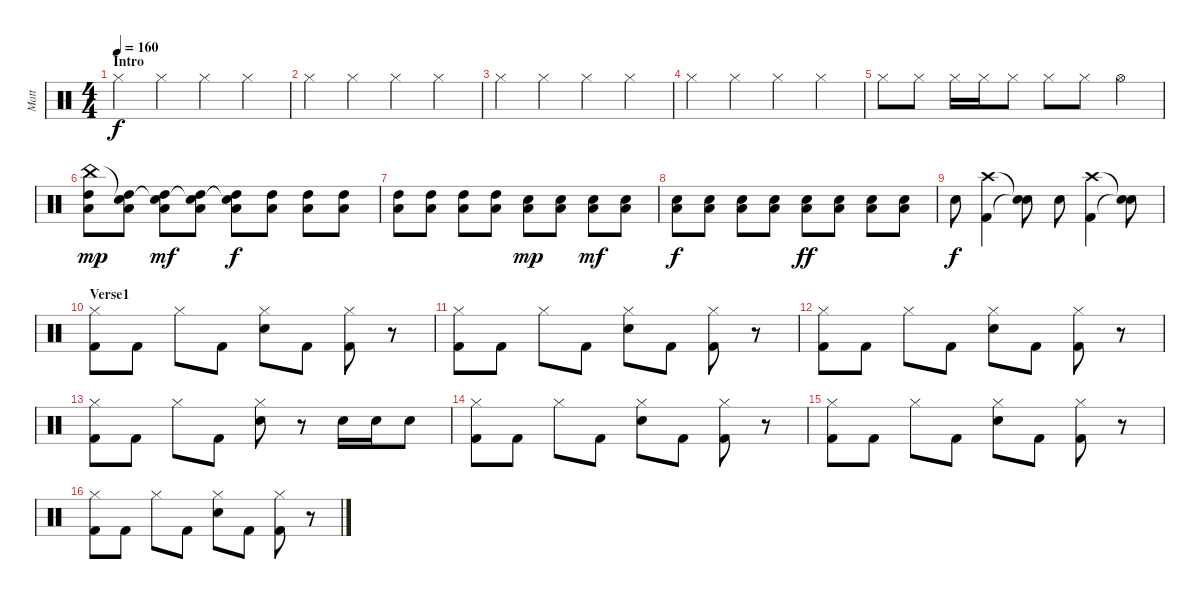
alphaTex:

\track ("Matt" "Matt") {instrument percussion}
\staff {score}
\articulation defaults
\ts (4 4)
\section ("" "Intro")
\tempo 160
\clef neutral
\ks c "Hi-Hat (closed)".4{dy f} "Hi-Hat (closed)".4 "Hi-Hat (closed)".4 "Hi-Hat (closed)".4
|
"Hi-Hat (closed)".4 "Hi-Hat (closed)".4 "Hi-Hat (closed)".4 "Hi-Hat (closed)".4 |
"Hi-Hat (closed)".4 "Hi-Hat (closed)".4 "Hi-Hat (closed)".4 "Hi-Hat (closed)".4 |
"Hi-Hat (closed)".4 "Hi-Hat (closed)".4 "Hi-Hat (closed)".4 "Hi-Hat (closed)".4 |
"Hi-Hat (closed)".8 "Hi-Hat (closed)".8 "Hi-Hat (closed)".16 "Hi-Hat (closed)".16 "Hi-Hat (closed)".8 "Hi-Hat (closed)".8 "Hi-Hat (closed)".8 "Hi-Hat (open)".4 |
("China (hit)" "High Tom (hit)" "Low Floor Tom (hit)").8{dy mp} ("Snare (hit)"{t} "High Tom (hit)" "Low Floor Tom (hit)").8 ("Snare (hit)"{t} "High Tom (hit)" "Low Floor Tom (hit)").8{dy mf} ("Snare (hit)"{t} "High Tom (hit)" "Low Floor Tom (hit)").8 ("Snare (hit)"{t} "High Tom (hit)" "Low Floor Tom (hit)").8{dy f} ("High Tom (hit)" "Low Floor Tom (hit)").8 ("High Tom (hit)" "Low Floor Tom (hit)").8 ("High Tom (hit)" "Low Floor Tom (hit)").8 |
("High Tom (hit)" "Low Floor Tom (hit)").8 ("High Tom (hit)" "Low Floor Tom (hit)").8 ("High Tom (hit)" "Low Floor Tom (hit)").8 ("High Tom (hit)" "Low Floor Tom (hit)").8 ("Electric Snare (hit)" "Low Floor Tom (hit)").8{dy mp} ("Electric Snare (hit)" "Low Floor Tom (hit)").8 ("Electric Snare (hit)" "Low Floor Tom (hit)").8{dy mf} ("Electric Snare (hit)" "Low Floor Tom (hit)").8 |
("Electric Snare (hit)" "Low Floor Tom (hit)").8{dy f} ("Electric Snare (hit)" "Low Floor Tom (hit)").8 ("Electric Snare (hit)" "Low Floor Tom (hit)").8 ("Electric Snare (hit)" "Low Floor Tom (hit)").8 ("Electric Snare (hit)" "Low Floor Tom (hit)").8{dy ff} ("Electric Snare (hit)" "Low Floor Tom (hit)").8 ("Electric Snare (hit)" "Low Floor Tom (hit)").8 ("Electric Snare (hit)" "Low Floor Tom (hit)").8 |
"Electric Snare (hit)".8{dy f} ("Crash high (hit)" "Kick (hit) 2").4 ("Snare (hit)"{t} "Snare (hit)"{t}).8 "Electric Snare (hit)".8 ("Crash high (hit)" "Kick (hit) 2").4 ("Snare (hit)"{t} "Snare (hit)"{t}).8 |
\section ("" "Verse1")
("Kick (hit) 2" "Hi-Hat (closed)").8 "Kick (hit) 2".8 "Hi-Hat (closed)".8 "Kick (hit) 2".8 ("Electric Snare (hit)" "Hi-Hat (closed)").8 "Kick (hit) 2".8 ("Kick (hit) 2" "Hi-Hat (closed)").8 r.8 |
("Kick (hit) 2" "Hi-Hat (closed)").8 "Kick (hit) 2".8 "Hi-Hat (closed)".8 "Kick (hit) 2".8 ("Electric Snare (hit)" "Hi-Hat (closed)").8 "Kick (hit) 2".8 ("Kick (hit) 2" "Hi-Hat (closed)").8 r.8 |
("Kick (hit) 2" "Hi-Hat (closed)").8 "Kick (hit) 2".8 "Hi-Hat (closed)".8 "Kick (hit) 2".8 ("Electric Snare (hit)" "Hi-Hat (closed)").8 "Kick (hit) 2".8 ("Kick (hit) 2" "Hi-Hat (closed)").8 r.8 |
("Kick (hit) 2" "Hi-Hat (closed)").8 "Kick (hit) 2".8 "Hi-Hat (closed)".8 "Kick (hit) 2".8 ("Electric Snare (hit)" "Hi-Hat (closed)").8 r.8 "Electric Snare (hit)".16 "Electric Snare (hit)".16 "Electric Snare (hit)".8 |
("Kick (hit) 2" "Hi-Hat (closed)").8 "Kick (hit) 2".8 "Hi-Hat (closed)".8 "Kick (hit) 2".8 ("Electric Snare (hit)" "Hi-Hat (closed)").8 "Kick (hit) 2".8 ("Kick (hit) 2" "Hi-Hat (closed)").8 r.8 |
("Kick (hit) 2" "Hi-Hat (closed)").8 "Kick (hit) 2".8 "Hi-Hat (closed)".8 "Kick (hit) 2".8 ("Electric Snare (hit)" "Hi-Hat (closed)").8 "Kick (hit) 2".8 ("Kick (hit) 2" "Hi-Hat (closed)").8 r.8 |
("Kick (hit) 2" "Hi-Hat (closed)").8 "Kick (hit) 2".8 "Hi-Hat (closed)".8 "Kick (hit) 2".8 ("Electric Snare (hit)" "Hi-Hat (closed)").8 "Kick (hit) 2".8 ("Kick (hit) 2" "Hi-Hat (closed)").8 r.8
